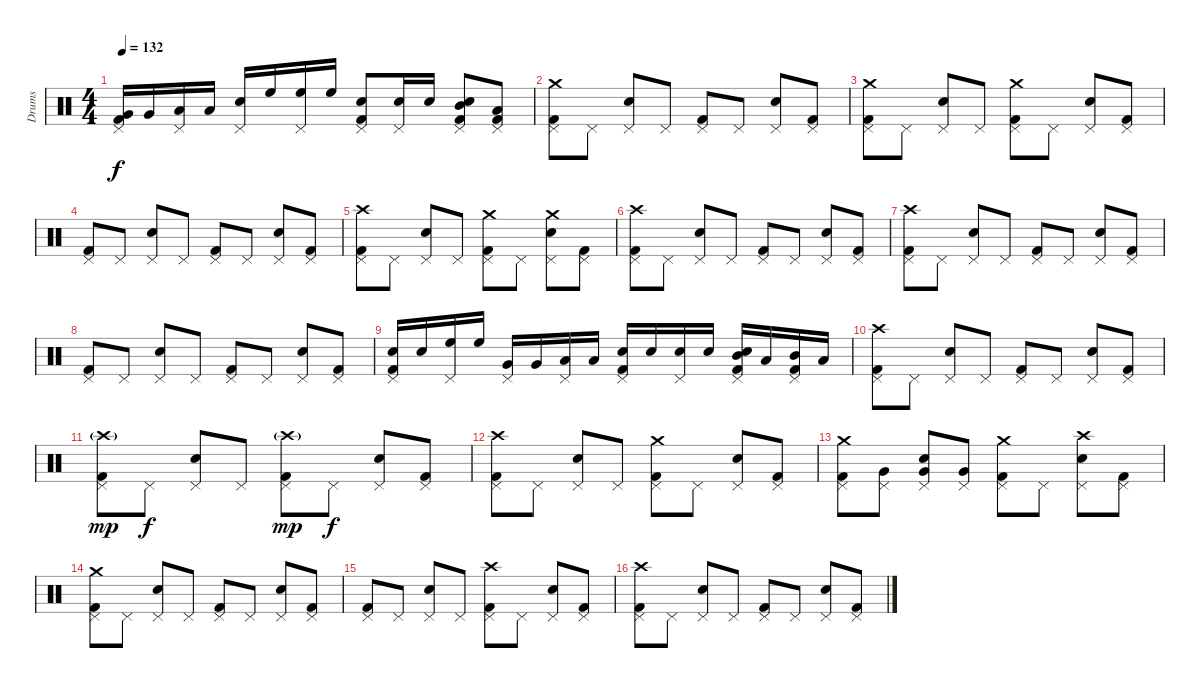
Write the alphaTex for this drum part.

\track ("Drums" "Drums") {instrument percussion}
\staff {score}
\articulation defaults
\ts (4 4)
\tempo 132
\clef neutral
\ks c
("Very Low Tom (hit)" "Pedal Hi-Hat (hit)" "Kick (hit) 2").16{dy f} "Very Low Tom (hit)".16 ("Low Floor Tom (hit)" "Pedal Hi-Hat (hit)").16 "Low Floor Tom (hit)".16 ("Electric Snare (hit)" "Pedal Hi-Hat (hit)").16 "High Floor Tom (hit)".16 ("High Floor Tom (hit)" "Pedal Hi-Hat (hit)").16 "High Floor Tom (hit)".16 ("Electric Snare (hit)" "Pedal Hi-Hat (hit)" "Kick (hit) 2").8 ("Electric Snare (hit)" "Pedal Hi-Hat (hit)").16 "Electric Snare (hit)".16 ("Electric Snare (hit)" "Mid Tom (hit)" "Pedal Hi-Hat (hit)" "Kick (hit) 2").8 ("Low Tom (hit)" "Pedal Hi-Hat (hit)" "Kick (hit) 2").8 |
("Pedal Hi-Hat (hit)" "Kick (hit) 2" "Crash medium (hit)").8 "Pedal Hi-Hat (hit)".8 ("Electric Snare (hit)" "Pedal Hi-Hat (hit)").8 "Pedal Hi-Hat (hit)".8 ("Pedal Hi-Hat (hit)" "Kick (hit) 2").8 "Pedal Hi-Hat (hit)".8 ("Electric Snare (hit)" "Pedal Hi-Hat (hit)").8 ("Pedal Hi-Hat (hit)" "Kick (hit) 2").8 |
("Pedal Hi-Hat (hit)" "Kick (hit) 2" "Crash medium (hit)").8 "Pedal Hi-Hat (hit)".8 ("Electric Snare (hit)" "Pedal Hi-Hat (hit)").8 "Pedal Hi-Hat (hit)".8 ("Pedal Hi-Hat (hit)" "Kick (hit) 2" "Crash medium (hit)").8 "Pedal Hi-Hat (hit)".8 ("Electric Snare (hit)" "Pedal Hi-Hat (hit)").8 ("Pedal Hi-Hat (hit)" "Kick (hit) 2").8 |
("Pedal Hi-Hat (hit)" "Kick (hit) 2").8 "Pedal Hi-Hat (hit)".8 ("Electric Snare (hit)" "Pedal Hi-Hat (hit)").8 "Pedal Hi-Hat (hit)".8 ("Pedal Hi-Hat (hit)" "Kick (hit) 2").8 "Pedal Hi-Hat (hit)".8 ("Electric Snare (hit)" "Pedal Hi-Hat (hit)").8 ("Pedal Hi-Hat (hit)" "Kick (hit) 2").8 |
("Pedal Hi-Hat (hit)" "Kick (hit) 2" "Crash high (hit)").8 "Pedal Hi-Hat (hit)".8 ("Electric Snare (hit)" "Pedal Hi-Hat (hit)").8 "Pedal Hi-Hat (hit)".8 ("Pedal Hi-Hat (hit)" "Kick (hit) 2" "Crash medium (hit)").8 "Pedal Hi-Hat (hit)".8 ("Electric Snare (hit)" "Pedal Hi-Hat (hit)" "Crash medium (hit)").8 ("Pedal Hi-Hat (hit)" "Kick (hit) 2").8 |
("Pedal Hi-Hat (hit)" "Kick (hit) 2" "Crash high (hit)").8 "Pedal Hi-Hat (hit)".8 ("Electric Snare (hit)" "Pedal Hi-Hat (hit)").8 "Pedal Hi-Hat (hit)".8 ("Pedal Hi-Hat (hit)" "Kick (hit) 2").8 "Pedal Hi-Hat (hit)".8 ("Electric Snare (hit)" "Pedal Hi-Hat (hit)").8 ("Pedal Hi-Hat (hit)" "Kick (hit) 2").8 |
("Pedal Hi-Hat (hit)" "Kick (hit) 2" "Crash high (hit)").8 "Pedal Hi-Hat (hit)".8 ("Electric Snare (hit)" "Pedal Hi-Hat (hit)").8 "Pedal Hi-Hat (hit)".8 ("Pedal Hi-Hat (hit)" "Kick (hit) 2").8 "Pedal Hi-Hat (hit)".8 ("Electric Snare (hit)" "Pedal Hi-Hat (hit)").8 ("Pedal Hi-Hat (hit)" "Kick (hit) 2").8 |
("Pedal Hi-Hat (hit)" "Kick (hit) 2").8 "Pedal Hi-Hat (hit)".8 ("Electric Snare (hit)" "Pedal Hi-Hat (hit)").8 "Pedal Hi-Hat (hit)".8 ("Pedal Hi-Hat (hit)" "Kick (hit) 2").8 "Pedal Hi-Hat (hit)".8 ("Electric Snare (hit)" "Pedal Hi-Hat (hit)").8 ("Pedal Hi-Hat (hit)" "Kick (hit) 2").8 |
("Electric Snare (hit)" "Pedal Hi-Hat (hit)" "Kick (hit) 2").16 "Electric Snare (hit)".16 ("High Floor Tom (hit)" "Pedal Hi-Hat (hit)").16 "High Floor Tom (hit)".16 ("Very Low Tom (hit)" "Pedal Hi-Hat (hit)").16 "Very Low Tom (hit)".16 ("Low Tom (hit)" "Pedal Hi-Hat (hit)").16 "Low Tom (hit)".16 ("Electric Snare (hit)" "Pedal Hi-Hat (hit)" "Kick (hit) 2").16 "Electric Snare (hit)".16 ("Electric Snare (hit)" "Pedal Hi-Hat (hit)").16 "Electric Snare (hit)".16 ("Electric Snare (hit)" "Mid Tom (hit)" "Pedal Hi-Hat (hit)" "Kick (hit) 2").16 "Low Floor Tom (hit)".16 ("Mid Tom (hit)" "Pedal Hi-Hat (hit)" "Kick (hit) 2").16 "Low Floor Tom (hit)".16 |
("Pedal Hi-Hat (hit)" "Kick (hit) 2" "Crash high (hit)").8 "Pedal Hi-Hat (hit)".8 ("Electric Snare (hit)" "Pedal Hi-Hat (hit)").8 "Pedal Hi-Hat (hit)".8 ("Pedal Hi-Hat (hit)" "Kick (hit) 2").8 "Pedal Hi-Hat (hit)".8 ("Electric Snare (hit)" "Pedal Hi-Hat (hit)").8 ("Pedal Hi-Hat (hit)" "Kick (hit) 2").8 |
("Pedal Hi-Hat (hit)" "Kick (hit) 2" "Crash high (hit)"{g}).8{dy mp} "Pedal Hi-Hat (hit)".8{dy f} ("Electric Snare (hit)" "Pedal Hi-Hat (hit)").8 "Pedal Hi-Hat (hit)".8 ("Pedal Hi-Hat (hit)" "Kick (hit) 2" "Crash high (hit)"{g}).8{dy mp} "Pedal Hi-Hat (hit)".8{dy f} ("Electric Snare (hit)" "Pedal Hi-Hat (hit)").8 ("Pedal Hi-Hat (hit)" "Kick (hit) 2").8 |
("Pedal Hi-Hat (hit)" "Kick (hit) 2" "Crash high (hit)").8 "Pedal Hi-Hat (hit)".8 ("Electric Snare (hit)" "Pedal Hi-Hat (hit)").8 "Pedal Hi-Hat (hit)".8 ("Pedal Hi-Hat (hit)" "Kick (hit) 2" "Crash medium (hit)").8 "Pedal Hi-Hat (hit)".8 ("Electric Snare (hit)" "Pedal Hi-Hat (hit)").8 ("Pedal Hi-Hat (hit)" "Kick (hit) 2").8 |
("Pedal Hi-Hat (hit)" "Kick (hit) 2" "Crash medium (hit)").8 ("Pedal Hi-Hat (hit)" "Very Low Tom (hit)").8 ("Electric Snare (hit)" "Pedal Hi-Hat (hit)" "Very Low Tom (hit)").8 ("Pedal Hi-Hat (hit)" "Very Low Tom (hit)").8 ("Pedal Hi-Hat (hit)" "Kick (hit) 2" "Crash medium (hit)").8 "Pedal Hi-Hat (hit)".8 ("Electric Snare (hit)" "Pedal Hi-Hat (hit)" "Crash high (hit)").8 ("Pedal Hi-Hat (hit)" "Kick (hit) 2").8 |
("Pedal Hi-Hat (hit)" "Kick (hit) 2" "Crash medium (hit)").8 "Pedal Hi-Hat (hit)".8 ("Electric Snare (hit)" "Pedal Hi-Hat (hit)").8 "Pedal Hi-Hat (hit)".8 ("Pedal Hi-Hat (hit)" "Kick (hit) 2").8 "Pedal Hi-Hat (hit)".8 ("Electric Snare (hit)" "Pedal Hi-Hat (hit)").8 ("Pedal Hi-Hat (hit)" "Kick (hit) 2").8 |
("Pedal Hi-Hat (hit)" "Kick (hit) 2").8 "Pedal Hi-Hat (hit)".8 ("Electric Snare (hit)" "Pedal Hi-Hat (hit)").8 "Pedal Hi-Hat (hit)".8 ("Pedal Hi-Hat (hit)" "Kick (hit) 2" "Crash high (hit)").8 "Pedal Hi-Hat (hit)".8 ("Electric Snare (hit)" "Pedal Hi-Hat (hit)").8 ("Pedal Hi-Hat (hit)" "Kick (hit) 2").8 |
("Pedal Hi-Hat (hit)" "Kick (hit) 2" "Crash high (hit)").8 "Pedal Hi-Hat (hit)".8 ("Electric Snare (hit)" "Pedal Hi-Hat (hit)").8 "Pedal Hi-Hat (hit)".8 ("Pedal Hi-Hat (hit)" "Kick (hit) 2").8 "Pedal Hi-Hat (hit)".8 ("Electric Snare (hit)" "Pedal Hi-Hat (hit)").8 ("Pedal Hi-Hat (hit)" "Kick (hit) 2").8
